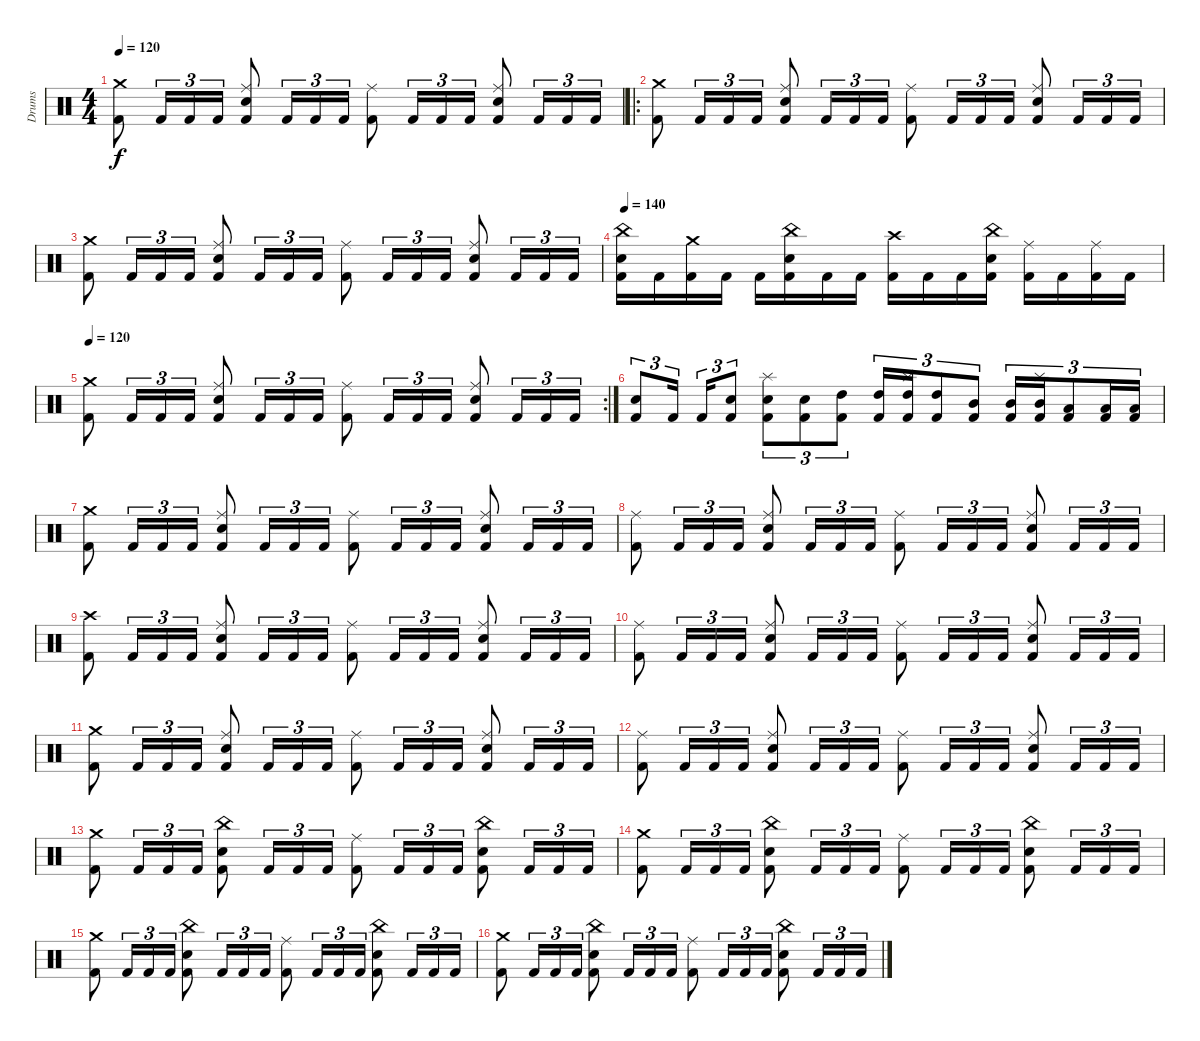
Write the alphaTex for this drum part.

\track ("Drums" "Drums") {instrument percussion}
\staff {score}
\articulation defaults
\ts (4 4)
\tempo 120
\clef neutral
\ks c
("Crash medium (hit)" "Kick (hit) 2").8{dy f} "Kick (hit) 2".16{tu (3 2)} "Kick (hit) 2".16{tu (3 2)} "Kick (hit) 2".16{tu (3 2)} ("Ride (middle)" "Snare (hit) 2" "Kick (hit) 2").8 "Kick (hit) 2".16{tu (3 2)} "Kick (hit) 2".16{tu (3 2)} "Kick (hit) 2".16{tu (3 2)} ("Ride (middle)" "Kick (hit) 2").8 "Kick (hit) 2".16{tu (3 2)} "Kick (hit) 2".16{tu (3 2)} "Kick (hit) 2".16{tu (3 2)} ("Ride (middle)" "Snare (hit) 2" "Kick (hit) 2").8 "Kick (hit) 2".16{tu (3 2)} "Kick (hit) 2".16{tu (3 2)} "Kick (hit) 2".16{tu (3 2)} |
\ro
("Crash medium (hit)" "Kick (hit) 2").8 "Kick (hit) 2".16{tu (3 2)} "Kick (hit) 2".16{tu (3 2)} "Kick (hit) 2".16{tu (3 2)} ("Ride (middle)" "Snare (hit) 2" "Kick (hit) 2").8 "Kick (hit) 2".16{tu (3 2)} "Kick (hit) 2".16{tu (3 2)} "Kick (hit) 2".16{tu (3 2)} ("Ride (middle)" "Kick (hit) 2").8 "Kick (hit) 2".16{tu (3 2)} "Kick (hit) 2".16{tu (3 2)} "Kick (hit) 2".16{tu (3 2)} ("Ride (middle)" "Snare (hit) 2" "Kick (hit) 2").8 "Kick (hit) 2".16{tu (3 2)} "Kick (hit) 2".16{tu (3 2)} "Kick (hit) 2".16{tu (3 2)} |
("Crash medium (hit)" "Kick (hit) 2").8 "Kick (hit) 2".16{tu (3 2)} "Kick (hit) 2".16{tu (3 2)} "Kick (hit) 2".16{tu (3 2)} ("Ride (middle)" "Snare (hit) 2" "Kick (hit) 2").8 "Kick (hit) 2".16{tu (3 2)} "Kick (hit) 2".16{tu (3 2)} "Kick (hit) 2".16{tu (3 2)} ("Ride (middle)" "Kick (hit) 2").8 "Kick (hit) 2".16{tu (3 2)} "Kick (hit) 2".16{tu (3 2)} "Kick (hit) 2".16{tu (3 2)} ("Ride (middle)" "Snare (hit) 2" "Kick (hit) 2").8 "Kick (hit) 2".16{tu (3 2)} "Kick (hit) 2".16{tu (3 2)} "Kick (hit) 2".16{tu (3 2)} |
\tempo 140
("China (hit)" "Snare (hit) 2" "Kick (hit) 2").16 "Kick (hit) 2".16 ("Crash medium (hit)" "Kick (hit) 2").16 "Kick (hit) 2".16 "Kick (hit) 2".16 ("China (hit)" "Snare (hit) 2" "Kick (hit) 2").16 "Kick (hit) 2".16 "Kick (hit) 2".16 ("Crash high (hit)" "Kick (hit) 2").16 "Kick (hit) 2".16 "Kick (hit) 2".16 ("China (hit)" "Snare (hit) 2" "Kick (hit) 2").16 ("Ride (middle)" "Kick (hit) 2").16 "Kick (hit) 2".16 ("Ride (middle)" "Kick (hit) 2").16 "Kick (hit) 2".16 |
\rc 2
\tempo 120
("Crash medium (hit)" "Kick (hit) 2").8 "Kick (hit) 2".16{tu (3 2)} "Kick (hit) 2".16{tu (3 2)} "Kick (hit) 2".16{tu (3 2)} ("Ride (middle)" "Snare (hit) 2" "Kick (hit) 2").8 "Kick (hit) 2".16{tu (3 2)} "Kick (hit) 2".16{tu (3 2)} "Kick (hit) 2".16{tu (3 2)} ("Ride (middle)" "Kick (hit) 2").8 "Kick (hit) 2".16{tu (3 2)} "Kick (hit) 2".16{tu (3 2)} "Kick (hit) 2".16{tu (3 2)} ("Ride (middle)" "Snare (hit) 2" "Kick (hit) 2").8 "Kick (hit) 2".16{tu (3 2)} "Kick (hit) 2".16{tu (3 2)} "Kick (hit) 2".16{tu (3 2)} |
("Snare (hit) 2" "Kick (hit) 2").8{tu (3 2)} "Kick (hit) 2".16{tu (3 2)} "Kick (hit) 2".16{tu (3 2)} ("Kick (hit) 2" "Snare (hit) 2").8{tu (3 2)} ("Splash (hit)" "Kick (hit) 2" "Snare (hit) 2").8{tu (3 2)} ("Kick (hit) 2" "Snare (hit) 2").8{tu (3 2)} ("Kick (hit) 2" "High Tom (hit)").8{tu (3 2)} ("Kick (hit) 2" "High Tom (hit)").16{tu (3 2)} ("Splash (hit)" "Kick (hit) 2" "High Tom (hit)").16{tu (3 2)} ("Kick (hit) 2" "High Tom (hit)").8{tu (3 2)} ("Kick (hit) 2" "Mid Tom (hit)").8{tu (3 2)} ("Kick (hit) 2" "Mid Tom (hit)").16{tu (3 2)} ("Splash (hit)" "Kick (hit) 2" "Mid Tom (hit)").16{tu (3 2)} ("Kick (hit) 2" "Low Tom (hit)").8{tu (3 2)} ("Kick (hit) 2" "Low Tom (hit)").16{tu (3 2)} ("Kick (hit) 2" "Low Tom (hit)").16{tu (3 2)} |
("Crash medium (hit)" "Kick (hit) 2").8 "Kick (hit) 2".16{tu (3 2)} "Kick (hit) 2".16{tu (3 2)} "Kick (hit) 2".16{tu (3 2)} ("Ride (middle)" "Snare (hit) 2" "Kick (hit) 2").8 "Kick (hit) 2".16{tu (3 2)} "Kick (hit) 2".16{tu (3 2)} "Kick (hit) 2".16{tu (3 2)} ("Ride (middle)" "Kick (hit) 2").8 "Kick (hit) 2".16{tu (3 2)} "Kick (hit) 2".16{tu (3 2)} "Kick (hit) 2".16{tu (3 2)} ("Ride (middle)" "Snare (hit) 2" "Kick (hit) 2").8 "Kick (hit) 2".16{tu (3 2)} "Kick (hit) 2".16{tu (3 2)} "Kick (hit) 2".16{tu (3 2)} |
("Ride (middle)" "Kick (hit) 2").8 "Kick (hit) 2".16{tu (3 2)} "Kick (hit) 2".16{tu (3 2)} "Kick (hit) 2".16{tu (3 2)} ("Ride (middle)" "Snare (hit) 2" "Kick (hit) 2").8 "Kick (hit) 2".16{tu (3 2)} "Kick (hit) 2".16{tu (3 2)} "Kick (hit) 2".16{tu (3 2)} ("Ride (middle)" "Kick (hit) 2").8 "Kick (hit) 2".16{tu (3 2)} "Kick (hit) 2".16{tu (3 2)} "Kick (hit) 2".16{tu (3 2)} ("Ride (middle)" "Snare (hit) 2" "Kick (hit) 2").8 "Kick (hit) 2".16{tu (3 2)} "Kick (hit) 2".16{tu (3 2)} "Kick (hit) 2".16{tu (3 2)} |
("Crash high (hit)" "Kick (hit) 2").8 "Kick (hit) 2".16{tu (3 2)} "Kick (hit) 2".16{tu (3 2)} "Kick (hit) 2".16{tu (3 2)} ("Ride (middle)" "Snare (hit) 2" "Kick (hit) 2").8 "Kick (hit) 2".16{tu (3 2)} "Kick (hit) 2".16{tu (3 2)} "Kick (hit) 2".16{tu (3 2)} ("Ride (middle)" "Kick (hit) 2").8 "Kick (hit) 2".16{tu (3 2)} "Kick (hit) 2".16{tu (3 2)} "Kick (hit) 2".16{tu (3 2)} ("Ride (middle)" "Snare (hit) 2" "Kick (hit) 2").8 "Kick (hit) 2".16{tu (3 2)} "Kick (hit) 2".16{tu (3 2)} "Kick (hit) 2".16{tu (3 2)} |
("Ride (middle)" "Kick (hit) 2").8 "Kick (hit) 2".16{tu (3 2)} "Kick (hit) 2".16{tu (3 2)} "Kick (hit) 2".16{tu (3 2)} ("Ride (middle)" "Snare (hit) 2" "Kick (hit) 2").8 "Kick (hit) 2".16{tu (3 2)} "Kick (hit) 2".16{tu (3 2)} "Kick (hit) 2".16{tu (3 2)} ("Ride (middle)" "Kick (hit) 2").8 "Kick (hit) 2".16{tu (3 2)} "Kick (hit) 2".16{tu (3 2)} "Kick (hit) 2".16{tu (3 2)} ("Ride (middle)" "Snare (hit) 2" "Kick (hit) 2").8 "Kick (hit) 2".16{tu (3 2)} "Kick (hit) 2".16{tu (3 2)} "Kick (hit) 2".16{tu (3 2)} |
("Crash medium (hit)" "Kick (hit) 2").8 "Kick (hit) 2".16{tu (3 2)} "Kick (hit) 2".16{tu (3 2)} "Kick (hit) 2".16{tu (3 2)} ("Ride (middle)" "Snare (hit) 2" "Kick (hit) 2").8 "Kick (hit) 2".16{tu (3 2)} "Kick (hit) 2".16{tu (3 2)} "Kick (hit) 2".16{tu (3 2)} ("Ride (middle)" "Kick (hit) 2").8 "Kick (hit) 2".16{tu (3 2)} "Kick (hit) 2".16{tu (3 2)} "Kick (hit) 2".16{tu (3 2)} ("Ride (middle)" "Snare (hit) 2" "Kick (hit) 2").8 "Kick (hit) 2".16{tu (3 2)} "Kick (hit) 2".16{tu (3 2)} "Kick (hit) 2".16{tu (3 2)} |
("Ride (middle)" "Kick (hit) 2").8 "Kick (hit) 2".16{tu (3 2)} "Kick (hit) 2".16{tu (3 2)} "Kick (hit) 2".16{tu (3 2)} ("Ride (middle)" "Snare (hit) 2" "Kick (hit) 2").8 "Kick (hit) 2".16{tu (3 2)} "Kick (hit) 2".16{tu (3 2)} "Kick (hit) 2".16{tu (3 2)} ("Ride (middle)" "Kick (hit) 2").8 "Kick (hit) 2".16{tu (3 2)} "Kick (hit) 2".16{tu (3 2)} "Kick (hit) 2".16{tu (3 2)} ("Ride (middle)" "Snare (hit) 2" "Kick (hit) 2").8 "Kick (hit) 2".16{tu (3 2)} "Kick (hit) 2".16{tu (3 2)} "Kick (hit) 2".16{tu (3 2)} |
("Crash medium (hit)" "Kick (hit) 2").8 "Kick (hit) 2".16{tu (3 2)} "Kick (hit) 2".16{tu (3 2)} "Kick (hit) 2".16{tu (3 2)} ("China (hit)" "Snare (hit) 2" "Kick (hit) 2").8 "Kick (hit) 2".16{tu (3 2)} "Kick (hit) 2".16{tu (3 2)} "Kick (hit) 2".16{tu (3 2)} ("Ride (middle)" "Kick (hit) 2").8 "Kick (hit) 2".16{tu (3 2)} "Kick (hit) 2".16{tu (3 2)} "Kick (hit) 2".16{tu (3 2)} ("China (hit)" "Snare (hit) 2" "Kick (hit) 2").8 "Kick (hit) 2".16{tu (3 2)} "Kick (hit) 2".16{tu (3 2)} "Kick (hit) 2".16{tu (3 2)} |
("Crash medium (hit)" "Kick (hit) 2").8 "Kick (hit) 2".16{tu (3 2)} "Kick (hit) 2".16{tu (3 2)} "Kick (hit) 2".16{tu (3 2)} ("China (hit)" "Snare (hit) 2" "Kick (hit) 2").8 "Kick (hit) 2".16{tu (3 2)} "Kick (hit) 2".16{tu (3 2)} "Kick (hit) 2".16{tu (3 2)} ("Ride (middle)" "Kick (hit) 2").8 "Kick (hit) 2".16{tu (3 2)} "Kick (hit) 2".16{tu (3 2)} "Kick (hit) 2".16{tu (3 2)} ("China (hit)" "Snare (hit) 2" "Kick (hit) 2").8 "Kick (hit) 2".16{tu (3 2)} "Kick (hit) 2".16{tu (3 2)} "Kick (hit) 2".16{tu (3 2)} |
("Crash medium (hit)" "Kick (hit) 2").8 "Kick (hit) 2".16{tu (3 2)} "Kick (hit) 2".16{tu (3 2)} "Kick (hit) 2".16{tu (3 2)} ("China (hit)" "Snare (hit) 2" "Kick (hit) 2").8 "Kick (hit) 2".16{tu (3 2)} "Kick (hit) 2".16{tu (3 2)} "Kick (hit) 2".16{tu (3 2)} ("Ride (middle)" "Kick (hit) 2").8 "Kick (hit) 2".16{tu (3 2)} "Kick (hit) 2".16{tu (3 2)} "Kick (hit) 2".16{tu (3 2)} ("China (hit)" "Snare (hit) 2" "Kick (hit) 2").8 "Kick (hit) 2".16{tu (3 2)} "Kick (hit) 2".16{tu (3 2)} "Kick (hit) 2".16{tu (3 2)} |
("Crash medium (hit)" "Kick (hit) 2").8 "Kick (hit) 2".16{tu (3 2)} "Kick (hit) 2".16{tu (3 2)} "Kick (hit) 2".16{tu (3 2)} ("China (hit)" "Snare (hit) 2" "Kick (hit) 2").8 "Kick (hit) 2".16{tu (3 2)} "Kick (hit) 2".16{tu (3 2)} "Kick (hit) 2".16{tu (3 2)} ("Ride (middle)" "Kick (hit) 2").8 "Kick (hit) 2".16{tu (3 2)} "Kick (hit) 2".16{tu (3 2)} "Kick (hit) 2".16{tu (3 2)} ("China (hit)" "Snare (hit) 2" "Kick (hit) 2").8 "Kick (hit) 2".16{tu (3 2)} "Kick (hit) 2".16{tu (3 2)} "Kick (hit) 2".16{tu (3 2)}
